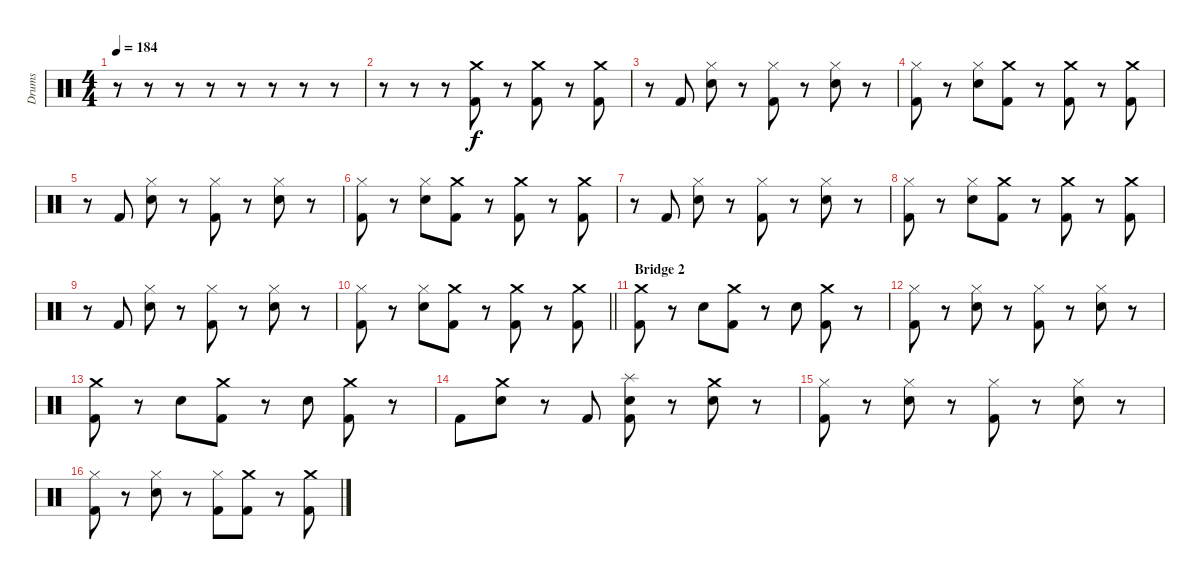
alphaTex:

\track ("Drums" "Drums") {instrument percussion}
\staff {score}
\articulation defaults
\ts (4 4)
\tempo 184
\clef neutral
\ks c
r.8{dy f} r.8 r.8 r.8 r.8 r.8 r.8 r.8 |
r.8 r.8 r.8 ("Crash medium (hit)" "Kick (hit) 2").8 r.8 ("Crash medium (hit)" "Kick (hit) 2").8 r.8 ("Crash medium (hit)" "Kick (hit) 2").8 |
r.8 "Kick (hit) 2".8 ("Hi-Hat (closed)" "Snare (hit) 2").8 r.8 ("Hi-Hat (closed)" "Kick (hit) 2").8 r.8 ("Hi-Hat (closed)" "Snare (hit) 2").8 r.8 |
("Hi-Hat (closed)" "Kick (hit) 2").8 r.8 ("Hi-Hat (closed)" "Snare (hit) 2").8 ("Crash medium (hit)" "Kick (hit) 2").8 r.8 ("Crash medium (hit)" "Kick (hit) 2").8 r.8 ("Crash medium (hit)" "Kick (hit) 2").8 |
r.8 "Kick (hit) 2".8 ("Hi-Hat (closed)" "Snare (hit) 2").8 r.8 ("Hi-Hat (closed)" "Kick (hit) 2").8 r.8 ("Hi-Hat (closed)" "Snare (hit) 2").8 r.8 |
("Hi-Hat (closed)" "Kick (hit) 2").8 r.8 ("Hi-Hat (closed)" "Snare (hit) 2").8 ("Crash medium (hit)" "Kick (hit) 2").8 r.8 ("Crash medium (hit)" "Kick (hit) 2").8 r.8 ("Crash medium (hit)" "Kick (hit) 2").8 |
r.8 "Kick (hit) 2".8 ("Hi-Hat (closed)" "Snare (hit) 2").8 r.8 ("Hi-Hat (closed)" "Kick (hit) 2").8 r.8 ("Hi-Hat (closed)" "Snare (hit) 2").8 r.8 |
("Hi-Hat (closed)" "Kick (hit) 2").8 r.8 ("Hi-Hat (closed)" "Snare (hit) 2").8 ("Crash medium (hit)" "Kick (hit) 2").8 r.8 ("Crash medium (hit)" "Kick (hit) 2").8 r.8 ("Crash medium (hit)" "Kick (hit) 2").8 |
r.8 "Kick (hit) 2".8 ("Hi-Hat (closed)" "Snare (hit) 2").8 r.8 ("Hi-Hat (closed)" "Kick (hit) 2").8 r.8 ("Hi-Hat (closed)" "Snare (hit) 2").8 r.8 |
\barLineRight lightlight
("Hi-Hat (closed)" "Kick (hit) 2").8 r.8 ("Hi-Hat (closed)" "Snare (hit) 2").8 ("Crash medium (hit)" "Kick (hit) 2").8 r.8 ("Crash medium (hit)" "Kick (hit) 2").8 r.8 ("Crash medium (hit)" "Kick (hit) 2").8 |
\section ("" "Bridge 2")
("Crash medium (hit)" "Kick (hit) 2").8 r.8 "Snare (hit) 2".8 ("Crash medium (hit)" "Kick (hit) 2").8 r.8 "Snare (hit) 2".8 ("Crash medium (hit)" "Kick (hit) 2").8 r.8 |
("Hi-Hat (closed)" "Kick (hit) 2").8 r.8 ("Hi-Hat (closed)" "Snare (hit) 2").8 r.8 ("Hi-Hat (closed)" "Kick (hit) 2").8 r.8 ("Hi-Hat (closed)" "Snare (hit) 2").8 r.8 |
("Crash medium (hit)" "Kick (hit) 2").8 r.8 "Snare (hit) 2".8 ("Crash medium (hit)" "Kick (hit) 2").8 r.8 "Snare (hit) 2".8 ("Crash medium (hit)" "Kick (hit) 2").8 r.8 |
"Kick (hit) 2".8 ("Crash medium (hit)" "Snare (hit) 2").8 r.8 "Kick (hit) 2".8 ("Splash (hit)" "Snare (hit) 2" "Kick (hit) 2").8 r.8 ("Crash medium (hit)" "Snare (hit) 2").8 r.8 |
("Hi-Hat (closed)" "Kick (hit) 2").8 r.8 ("Hi-Hat (closed)" "Snare (hit) 2").8 r.8 ("Hi-Hat (closed)" "Kick (hit) 2").8 r.8 ("Hi-Hat (closed)" "Snare (hit) 2").8 r.8 |
("Hi-Hat (closed)" "Kick (hit) 2").8 r.8 ("Hi-Hat (closed)" "Snare (hit) 2").8 r.8 ("Hi-Hat (closed)" "Kick (hit) 2").8 ("Crash medium (hit)" "Kick (hit) 2").8 r.8 ("Crash medium (hit)" "Kick (hit) 2").8
